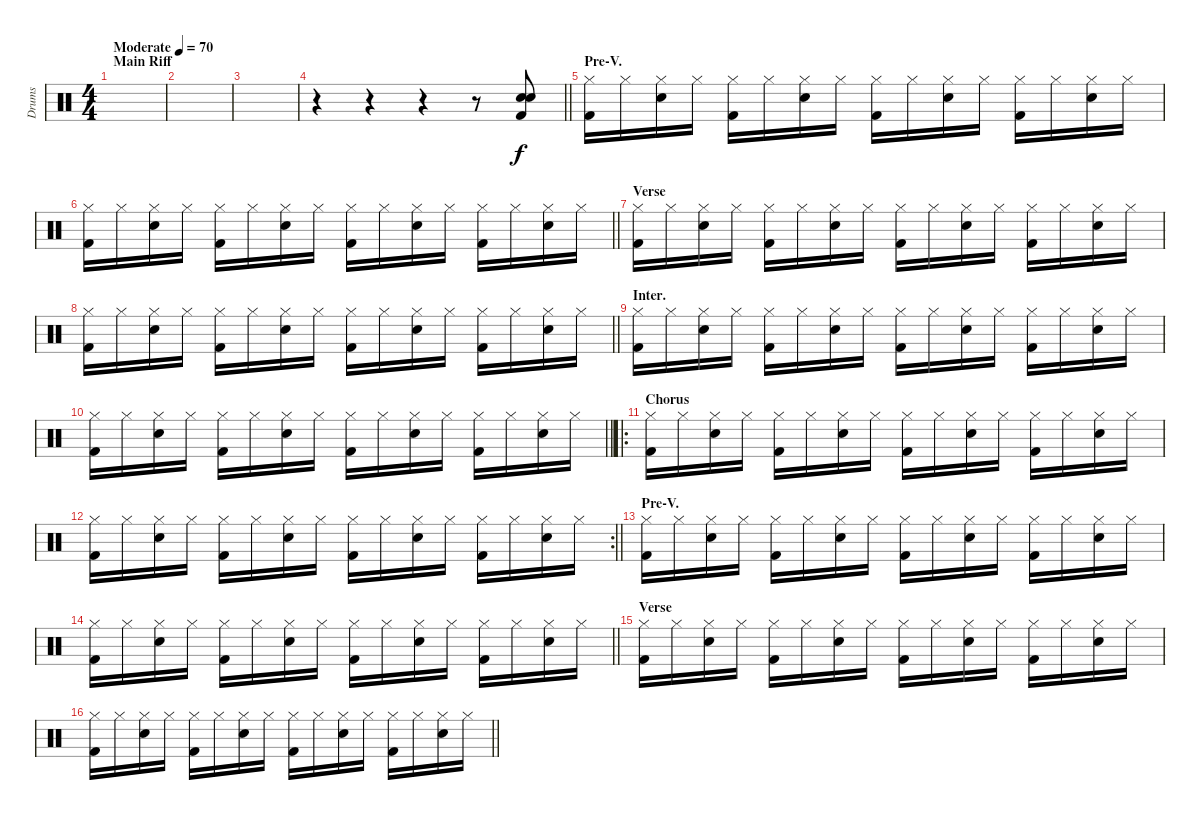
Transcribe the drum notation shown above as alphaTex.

\track ("Drums" "Drums") {instrument percussion}
\staff {score}
\articulation defaults
\ts (4 4)
\section ("" "Main Riff")
\tempo (70 "Moderate")
\clef neutral
\ks c
|
|
|
\barLineRight lightlight
r.4 r.4 r.4 r.8 ("Kick (hit) 2" "Snare (hit) 2" "Electric Snare (hit)").8 |
\section ("" "Pre-V.")
("Hi-Hat (closed)" "Kick (hit) 2").16 "Hi-Hat (closed)".16 ("Hi-Hat (closed)" "Electric Snare (hit)").16 "Hi-Hat (closed)".16 ("Hi-Hat (closed)" "Kick (hit) 2").16 "Hi-Hat (closed)".16 ("Hi-Hat (closed)" "Electric Snare (hit)").16 "Hi-Hat (closed)".16 ("Hi-Hat (closed)" "Kick (hit) 2").16 "Hi-Hat (closed)".16 ("Hi-Hat (closed)" "Electric Snare (hit)").16 "Hi-Hat (closed)".16 ("Hi-Hat (closed)" "Kick (hit) 2").16 "Hi-Hat (closed)".16 ("Hi-Hat (closed)" "Electric Snare (hit)").16 "Hi-Hat (closed)".16 |
\barLineRight lightlight
("Hi-Hat (closed)" "Kick (hit) 2").16 "Hi-Hat (closed)".16 ("Hi-Hat (closed)" "Electric Snare (hit)").16 "Hi-Hat (closed)".16 ("Hi-Hat (closed)" "Kick (hit) 2").16 "Hi-Hat (closed)".16 ("Hi-Hat (closed)" "Electric Snare (hit)").16 "Hi-Hat (closed)".16 ("Hi-Hat (closed)" "Kick (hit) 2").16 "Hi-Hat (closed)".16 ("Hi-Hat (closed)" "Electric Snare (hit)").16 "Hi-Hat (closed)".16 ("Hi-Hat (closed)" "Kick (hit) 2").16 "Hi-Hat (closed)".16 ("Hi-Hat (closed)" "Electric Snare (hit)").16 "Hi-Hat (closed)".16 |
\section ("" "Verse")
("Hi-Hat (closed)" "Kick (hit) 2").16 "Hi-Hat (closed)".16 ("Hi-Hat (closed)" "Electric Snare (hit)").16 "Hi-Hat (closed)".16 ("Hi-Hat (closed)" "Kick (hit) 2").16 "Hi-Hat (closed)".16 ("Hi-Hat (closed)" "Electric Snare (hit)").16 "Hi-Hat (closed)".16 ("Hi-Hat (closed)" "Kick (hit) 2").16 "Hi-Hat (closed)".16 ("Hi-Hat (closed)" "Electric Snare (hit)").16 "Hi-Hat (closed)".16 ("Hi-Hat (closed)" "Kick (hit) 2").16 "Hi-Hat (closed)".16 ("Hi-Hat (closed)" "Electric Snare (hit)").16 "Hi-Hat (closed)".16 |
\barLineRight lightlight
("Hi-Hat (closed)" "Kick (hit) 2").16 "Hi-Hat (closed)".16 ("Hi-Hat (closed)" "Electric Snare (hit)").16 "Hi-Hat (closed)".16 ("Hi-Hat (closed)" "Kick (hit) 2").16 "Hi-Hat (closed)".16 ("Hi-Hat (closed)" "Electric Snare (hit)").16 "Hi-Hat (closed)".16 ("Hi-Hat (closed)" "Kick (hit) 2").16 "Hi-Hat (closed)".16 ("Hi-Hat (closed)" "Electric Snare (hit)").16 "Hi-Hat (closed)".16 ("Hi-Hat (closed)" "Kick (hit) 2").16 "Hi-Hat (closed)".16 ("Hi-Hat (closed)" "Electric Snare (hit)").16 "Hi-Hat (closed)".16 |
\section ("" "Inter.")
("Hi-Hat (closed)" "Kick (hit) 2").16 "Hi-Hat (closed)".16 ("Hi-Hat (closed)" "Electric Snare (hit)").16 "Hi-Hat (closed)".16 ("Hi-Hat (closed)" "Kick (hit) 2").16 "Hi-Hat (closed)".16 ("Hi-Hat (closed)" "Electric Snare (hit)").16 "Hi-Hat (closed)".16 ("Hi-Hat (closed)" "Kick (hit) 2").16 "Hi-Hat (closed)".16 ("Hi-Hat (closed)" "Electric Snare (hit)").16 "Hi-Hat (closed)".16 ("Hi-Hat (closed)" "Kick (hit) 2").16 "Hi-Hat (closed)".16 ("Hi-Hat (closed)" "Electric Snare (hit)").16 "Hi-Hat (closed)".16 |
\barLineRight lightlight
("Hi-Hat (closed)" "Kick (hit) 2").16 "Hi-Hat (closed)".16 ("Hi-Hat (closed)" "Electric Snare (hit)").16 "Hi-Hat (closed)".16 ("Hi-Hat (closed)" "Kick (hit) 2").16 "Hi-Hat (closed)".16 ("Hi-Hat (closed)" "Electric Snare (hit)").16 "Hi-Hat (closed)".16 ("Hi-Hat (closed)" "Kick (hit) 2").16 "Hi-Hat (closed)".16 ("Hi-Hat (closed)" "Electric Snare (hit)").16 "Hi-Hat (closed)".16 ("Hi-Hat (closed)" "Kick (hit) 2").16 "Hi-Hat (closed)".16 ("Hi-Hat (closed)" "Electric Snare (hit)").16 "Hi-Hat (closed)".16 |
\ro
\section ("" "Chorus")
("Hi-Hat (closed)" "Kick (hit) 2").16 "Hi-Hat (closed)".16 ("Hi-Hat (closed)" "Electric Snare (hit)").16 "Hi-Hat (closed)".16 ("Hi-Hat (closed)" "Kick (hit) 2").16 "Hi-Hat (closed)".16 ("Hi-Hat (closed)" "Electric Snare (hit)").16 "Hi-Hat (closed)".16 ("Hi-Hat (closed)" "Kick (hit) 2").16 "Hi-Hat (closed)".16 ("Hi-Hat (closed)" "Electric Snare (hit)").16 "Hi-Hat (closed)".16 ("Hi-Hat (closed)" "Kick (hit) 2").16 "Hi-Hat (closed)".16 ("Hi-Hat (closed)" "Electric Snare (hit)").16 "Hi-Hat (closed)".16 |
\rc 2
\barLineRight lightlight
("Hi-Hat (closed)" "Kick (hit) 2").16 "Hi-Hat (closed)".16 ("Hi-Hat (closed)" "Electric Snare (hit)").16 "Hi-Hat (closed)".16 ("Hi-Hat (closed)" "Kick (hit) 2").16 "Hi-Hat (closed)".16 ("Hi-Hat (closed)" "Electric Snare (hit)").16 "Hi-Hat (closed)".16 ("Hi-Hat (closed)" "Kick (hit) 2").16 "Hi-Hat (closed)".16 ("Hi-Hat (closed)" "Electric Snare (hit)").16 "Hi-Hat (closed)".16 ("Hi-Hat (closed)" "Kick (hit) 2").16 "Hi-Hat (closed)".16 ("Hi-Hat (closed)" "Electric Snare (hit)").16 "Hi-Hat (closed)".16 |
\section ("" "Pre-V.")
("Hi-Hat (closed)" "Kick (hit) 2").16 "Hi-Hat (closed)".16 ("Hi-Hat (closed)" "Electric Snare (hit)").16 "Hi-Hat (closed)".16 ("Hi-Hat (closed)" "Kick (hit) 2").16 "Hi-Hat (closed)".16 ("Hi-Hat (closed)" "Electric Snare (hit)").16 "Hi-Hat (closed)".16 ("Hi-Hat (closed)" "Kick (hit) 2").16 "Hi-Hat (closed)".16 ("Hi-Hat (closed)" "Electric Snare (hit)").16 "Hi-Hat (closed)".16 ("Hi-Hat (closed)" "Kick (hit) 2").16 "Hi-Hat (closed)".16 ("Hi-Hat (closed)" "Electric Snare (hit)").16 "Hi-Hat (closed)".16 |
\barLineRight lightlight
("Hi-Hat (closed)" "Kick (hit) 2").16 "Hi-Hat (closed)".16 ("Hi-Hat (closed)" "Electric Snare (hit)").16 "Hi-Hat (closed)".16 ("Hi-Hat (closed)" "Kick (hit) 2").16 "Hi-Hat (closed)".16 ("Hi-Hat (closed)" "Electric Snare (hit)").16 "Hi-Hat (closed)".16 ("Hi-Hat (closed)" "Kick (hit) 2").16 "Hi-Hat (closed)".16 ("Hi-Hat (closed)" "Electric Snare (hit)").16 "Hi-Hat (closed)".16 ("Hi-Hat (closed)" "Kick (hit) 2").16 "Hi-Hat (closed)".16 ("Hi-Hat (closed)" "Electric Snare (hit)").16 "Hi-Hat (closed)".16 |
\section ("" "Verse")
("Hi-Hat (closed)" "Kick (hit) 2").16 "Hi-Hat (closed)".16 ("Hi-Hat (closed)" "Electric Snare (hit)").16 "Hi-Hat (closed)".16 ("Hi-Hat (closed)" "Kick (hit) 2").16 "Hi-Hat (closed)".16 ("Hi-Hat (closed)" "Electric Snare (hit)").16 "Hi-Hat (closed)".16 ("Hi-Hat (closed)" "Kick (hit) 2").16 "Hi-Hat (closed)".16 ("Hi-Hat (closed)" "Electric Snare (hit)").16 "Hi-Hat (closed)".16 ("Hi-Hat (closed)" "Kick (hit) 2").16 "Hi-Hat (closed)".16 ("Hi-Hat (closed)" "Electric Snare (hit)").16 "Hi-Hat (closed)".16 |
\barLineRight lightlight
("Hi-Hat (closed)" "Kick (hit) 2").16 "Hi-Hat (closed)".16 ("Hi-Hat (closed)" "Electric Snare (hit)").16 "Hi-Hat (closed)".16 ("Hi-Hat (closed)" "Kick (hit) 2").16 "Hi-Hat (closed)".16 ("Hi-Hat (closed)" "Electric Snare (hit)").16 "Hi-Hat (closed)".16 ("Hi-Hat (closed)" "Kick (hit) 2").16 "Hi-Hat (closed)".16 ("Hi-Hat (closed)" "Electric Snare (hit)").16 "Hi-Hat (closed)".16 ("Hi-Hat (closed)" "Kick (hit) 2").16 "Hi-Hat (closed)".16 ("Hi-Hat (closed)" "Electric Snare (hit)").16 "Hi-Hat (closed)".16
